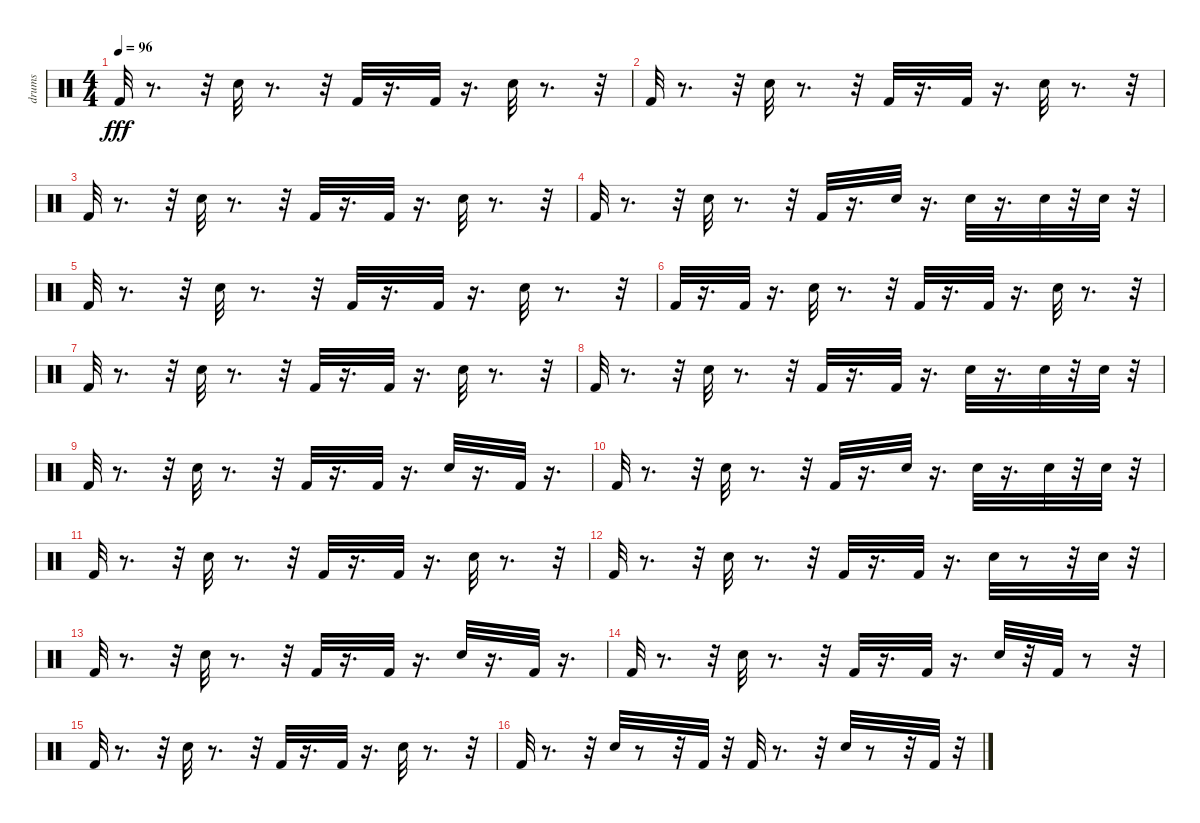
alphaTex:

\track ("drums" "drums") {instrument percussion}
\staff {score}
\articulation defaults
\ts (4 4)
\tempo 96
\clef neutral
\ks c "Kick (hit) 2".32{dy fff}
r.8{d} r.32 "Electric Snare (hit)".32 r.8{d} r.32 "Kick (hit) 2".32 r.16{d} "Kick (hit) 2".32 r.16{d} "Electric Snare (hit)".32 r.8{d} r.32 |
"Kick (hit) 2".32 r.8{d} r.32 "Electric Snare (hit)".32 r.8{d} r.32 "Kick (hit) 2".32 r.16{d} "Kick (hit) 2".32 r.16{d} "Electric Snare (hit)".32 r.8{d} r.32 |
"Kick (hit) 2".32 r.8{d} r.32 "Electric Snare (hit)".32 r.8{d} r.32 "Kick (hit) 2".32 r.16{d} "Kick (hit) 2".32 r.16{d} "Electric Snare (hit)".32 r.8{d} r.32 |
"Kick (hit) 2".32 r.8{d} r.32 "Electric Snare (hit)".32 r.8{d} r.32 "Kick (hit) 2".32 r.16{d} "Electric Snare (hit)".32 r.16{d} "Electric Snare (hit)".32 r.16{d} "Electric Snare (hit)".32 r.32 "Electric Snare (hit)".32 r.32 |
"Kick (hit) 2".32 r.8{d} r.32 "Electric Snare (hit)".32 r.8{d} r.32 "Kick (hit) 2".32 r.16{d} "Kick (hit) 2".32 r.16{d} "Electric Snare (hit)".32 r.8{d} r.32 |
"Kick (hit) 2".32 r.16{d} "Kick (hit) 2".32 r.16{d} "Electric Snare (hit)".32 r.8{d} r.32 "Kick (hit) 2".32 r.16{d} "Kick (hit) 2".32 r.16{d} "Electric Snare (hit)".32 r.8{d} r.32 |
"Kick (hit) 2".32 r.8{d} r.32 "Electric Snare (hit)".32 r.8{d} r.32 "Kick (hit) 2".32 r.16{d} "Kick (hit) 2".32 r.16{d} "Electric Snare (hit)".32 r.8{d} r.32 |
"Kick (hit) 2".32 r.8{d} r.32 "Electric Snare (hit)".32 r.8{d} r.32 "Kick (hit) 2".32 r.16{d} "Kick (hit) 2".32 r.16{d} "Electric Snare (hit)".32 r.16{d} "Electric Snare (hit)".32 r.32 "Electric Snare (hit)".32 r.32 |
"Kick (hit) 2".32 r.8{d} r.32 "Electric Snare (hit)".32 r.8{d} r.32 "Kick (hit) 2".32 r.16{d} "Kick (hit) 2".32 r.16{d} "Electric Snare (hit)".32 r.16{d} "Kick (hit) 2".32 r.16{d} |
"Kick (hit) 2".32 r.8{d} r.32 "Electric Snare (hit)".32 r.8{d} r.32 "Kick (hit) 2".32 r.16{d} "Electric Snare (hit)".32 r.16{d} "Electric Snare (hit)".32 r.16{d} "Electric Snare (hit)".32 r.32 "Electric Snare (hit)".32 r.32 |
"Kick (hit) 2".32 r.8{d} r.32 "Electric Snare (hit)".32 r.8{d} r.32 "Kick (hit) 2".32 r.16{d} "Kick (hit) 2".32 r.16{d} "Electric Snare (hit)".32 r.8{d} r.32 |
"Kick (hit) 2".32 r.8{d} r.32 "Electric Snare (hit)".32 r.8{d} r.32 "Kick (hit) 2".32 r.16{d} "Kick (hit) 2".32 r.16{d} "Electric Snare (hit)".32 r.8 r.32 "Electric Snare (hit)".32 r.32 |
"Kick (hit) 2".32 r.8{d} r.32 "Electric Snare (hit)".32 r.8{d} r.32 "Kick (hit) 2".32 r.16{d} "Kick (hit) 2".32 r.16{d} "Electric Snare (hit)".32 r.16{d} "Kick (hit) 2".32 r.16{d} |
"Kick (hit) 2".32 r.8{d} r.32 "Electric Snare (hit)".32 r.8{d} r.32 "Kick (hit) 2".32 r.16{d} "Kick (hit) 2".32 r.16{d} "Electric Snare (hit)".32 r.32 "Kick (hit) 2".32 r.8 r.32 |
"Kick (hit) 2".32 r.8{d} r.32 "Electric Snare (hit)".32 r.8{d} r.32 "Kick (hit) 2".32 r.16{d} "Kick (hit) 2".32 r.16{d} "Electric Snare (hit)".32 r.8{d} r.32 |
"Kick (hit) 2".32 r.8{d} r.32 "Electric Snare (hit)".32 r.8 r.32 "Kick (hit) 2".32 r.32 "Kick (hit) 2".32 r.8{d} r.32 "Electric Snare (hit)".32 r.8 r.32 "Kick (hit) 2".32 r.32
